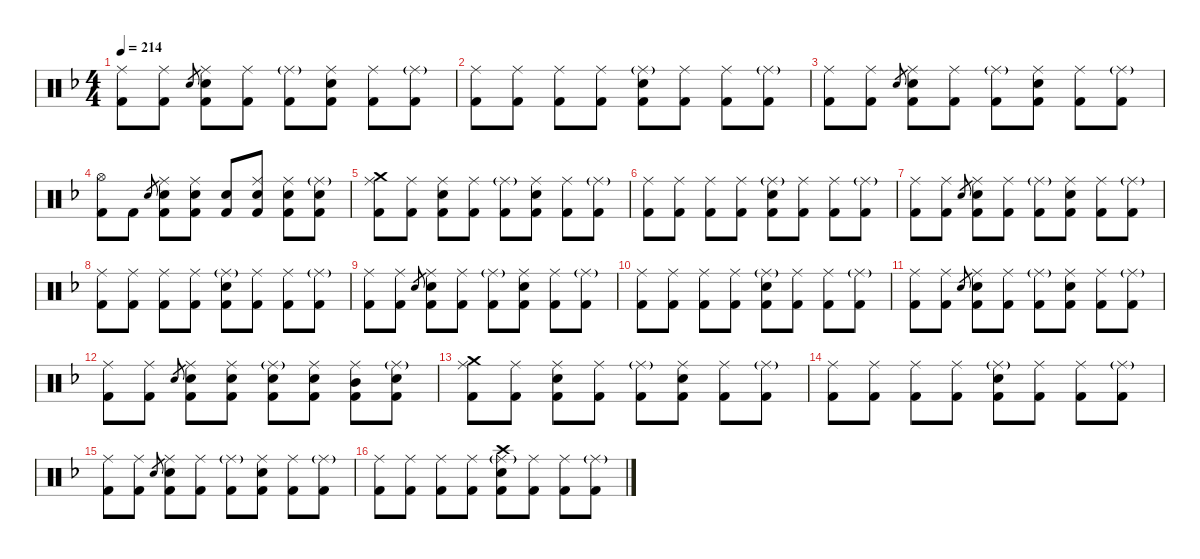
\hideDynamics
\bracketExtendMode nobrackets
\singleTrackTrackNamePolicy hidden
\multiTrackTrackNamePolicy hidden
\firstSystemTrackNameMode fullname
\firstSystemTrackNameOrientation horizontal
\otherSystemsTrackNameOrientation horizontal
\track ("Drumkit" "Drums") {defaultSystemsLayout 4 instrument percussion}
\staff {score}
\articulation defaults
\ts (4 4)
\tempo 214
\clef neutral
\ks dminor
("Ride (middle)"{acc forcenatural} "Kick (hit) 2"{acc forcenatural}).8{dy mf beam Down} ("Ride (middle)"{acc forcenatural} "Kick (hit) 2"{acc forcenatural}).8{beam Down} "Snare (hit) 2"{acc forcenatural}.8{gr dy mp beam Up} ("Ride (middle)"{acc forcenatural} "Snare (hit) 2"{acc forcenatural} "Kick (hit) 2"{acc forcenatural}).8{dy mf beam Down} ("Ride (middle)"{acc forcenatural} "Kick (hit) 2"{acc forcenatural}).8{beam Down} ("Ride (middle)"{g acc forcenatural} "Kick (hit) 2"{acc forcenatural}).8{dy f beam Down} ("Ride (middle)"{acc forcenatural} "Snare (hit) 2"{acc forcenatural} "Kick (hit) 2"{acc forcenatural}).8{dy mf beam Down} ("Ride (middle)"{acc forcenatural} "Kick (hit) 2"{acc forcenatural}).8{beam Down} ("Ride (middle)"{g acc forcenatural} "Kick (hit) 2"{acc forcenatural}).8{dy f beam Down} |
("Ride (middle)"{acc forcenatural} "Kick (hit) 2"{acc forcenatural}).8{dy mf beam Down} ("Ride (middle)"{acc forcenatural} "Kick (hit) 2"{acc forcenatural}).8{beam Down} ("Ride (middle)"{acc forcenatural} "Kick (hit) 2"{acc forcenatural}).8{beam Down} ("Ride (middle)"{acc forcenatural} "Kick (hit) 2"{acc forcenatural}).8{beam Down} ("Ride (middle)"{g acc forcenatural} "Snare (hit) 2"{acc forcenatural} "Kick (hit) 2"{acc forcenatural}).8{dy f beam Down} ("Ride (middle)"{acc forcenatural} "Kick (hit) 2"{acc forcenatural}).8{dy mf beam Down} ("Ride (middle)"{acc forcenatural} "Kick (hit) 2"{acc forcenatural}).8{beam Down} ("Ride (middle)"{g acc forcenatural} "Kick (hit) 2"{acc forcenatural}).8{dy f beam Down} |
("Ride (middle)"{acc forcenatural} "Kick (hit) 2"{acc forcenatural}).8{dy mf beam Down} ("Ride (middle)"{acc forcenatural} "Kick (hit) 2"{acc forcenatural}).8{beam Down} "Snare (hit) 2"{acc forcenatural}.8{gr dy mp beam Up} ("Ride (middle)"{acc forcenatural} "Snare (hit) 2"{acc forcenatural} "Kick (hit) 2"{acc forcenatural}).8{dy mf beam Down} ("Ride (middle)"{acc forcenatural} "Kick (hit) 2"{acc forcenatural}).8{beam Down} ("Ride (middle)"{g acc forcenatural} "Kick (hit) 2"{acc forcenatural}).8{dy f beam Down} ("Ride (middle)"{acc forcenatural} "Snare (hit) 2"{acc forcenatural} "Kick (hit) 2"{acc forcenatural}).8{dy mf beam Down} ("Ride (middle)"{acc forcenatural} "Kick (hit) 2"{acc forcenatural}).8{beam Down} ("Ride (middle)"{g acc forcenatural} "Kick (hit) 2"{acc forcenatural}).8{dy f beam Down} |
("Hi-Hat (open)"{acc forcenatural} "Kick (hit) 2"{acc forcenatural}).8{dy mf beam Down} "Kick (hit) 2"{acc forcenatural}.8{dy f beam Down} "Snare (hit) 2"{acc forcenatural}.8{gr dy mp beam Up} ("Ride (middle)"{acc forcenatural} "Snare (hit) 2"{acc forcenatural} "Kick (hit) 2"{acc forcenatural}).8{dy mf beam Down} ("Ride (middle)"{acc forcenatural} "Snare (hit) 2"{acc forcenatural} "Kick (hit) 2"{acc forcenatural}).8{beam Down} ("Snare (hit) 2"{acc forcenatural} "Kick (hit) 2"{acc forcenatural}).8{dy f beam Up} ("Ride (middle)"{acc forcenatural} "Snare (hit) 2"{acc forcenatural} "Kick (hit) 2"{acc forcenatural}).8{dy mf beam Up} ("Ride (middle)"{acc forcenatural} "Snare (hit) 2"{acc forcenatural} "Kick (hit) 2"{acc forcenatural}).8{beam Down} ("Ride (middle)"{g acc forcenatural} "Snare (hit) 2"{acc forcenatural} "Kick (hit) 2"{acc forcenatural}).8{dy f beam Down} |
("Crash medium (hit)"{acc forcenatural} "Ride (middle)"{acc forcenatural} "Kick (hit) 2"{acc forcenatural}).8{beam Down} ("Ride (middle)"{acc forcenatural} "Kick (hit) 2"{acc forcenatural}).8{dy mf beam Down} ("Ride (middle)"{acc forcenatural} "Snare (hit) 2"{acc forcenatural} "Kick (hit) 2"{acc forcenatural}).8{beam Down} ("Ride (middle)"{acc forcenatural} "Kick (hit) 2"{acc forcenatural}).8{beam Down} ("Ride (middle)"{g acc forcenatural} "Kick (hit) 2"{acc forcenatural}).8{dy f beam Down} ("Ride (middle)"{acc forcenatural} "Snare (hit) 2"{acc forcenatural} "Kick (hit) 2"{acc forcenatural}).8{dy mf beam Down} ("Ride (middle)"{acc forcenatural} "Kick (hit) 2"{acc forcenatural}).8{beam Down} ("Ride (middle)"{g acc forcenatural} "Kick (hit) 2"{acc forcenatural}).8{dy f beam Down} |
("Ride (middle)"{acc forcenatural} "Kick (hit) 2"{acc forcenatural}).8{dy mf beam Down} ("Ride (middle)"{acc forcenatural} "Kick (hit) 2"{acc forcenatural}).8{beam Down} ("Ride (middle)"{acc forcenatural} "Kick (hit) 2"{acc forcenatural}).8{beam Down} ("Ride (middle)"{acc forcenatural} "Kick (hit) 2"{acc forcenatural}).8{beam Down} ("Ride (middle)"{g acc forcenatural} "Snare (hit) 2"{acc forcenatural} "Kick (hit) 2"{acc forcenatural}).8{dy f beam Down} ("Ride (middle)"{acc forcenatural} "Kick (hit) 2"{acc forcenatural}).8{dy mf beam Down} ("Ride (middle)"{acc forcenatural} "Kick (hit) 2"{acc forcenatural}).8{beam Down} ("Ride (middle)"{g acc forcenatural} "Kick (hit) 2"{acc forcenatural}).8{dy f beam Down} |
("Ride (middle)"{acc forcenatural} "Kick (hit) 2"{acc forcenatural}).8{dy mf beam Down} ("Ride (middle)"{acc forcenatural} "Kick (hit) 2"{acc forcenatural}).8{beam Down} "Snare (hit) 2"{acc forcenatural}.8{gr dy mp beam Up} ("Ride (middle)"{acc forcenatural} "Snare (hit) 2"{acc forcenatural} "Kick (hit) 2"{acc forcenatural}).8{dy mf beam Down} ("Ride (middle)"{acc forcenatural} "Kick (hit) 2"{acc forcenatural}).8{beam Down} ("Ride (middle)"{g acc forcenatural} "Kick (hit) 2"{acc forcenatural}).8{dy f beam Down} ("Ride (middle)"{acc forcenatural} "Snare (hit) 2"{acc forcenatural} "Kick (hit) 2"{acc forcenatural}).8{dy mf beam Down} ("Ride (middle)"{acc forcenatural} "Kick (hit) 2"{acc forcenatural}).8{beam Down} ("Ride (middle)"{g acc forcenatural} "Kick (hit) 2"{acc forcenatural}).8{dy f beam Down} |
("Ride (middle)"{acc forcenatural} "Kick (hit) 2"{acc forcenatural}).8{dy mf beam Down} ("Ride (middle)"{acc forcenatural} "Kick (hit) 2"{acc forcenatural}).8{beam Down} ("Ride (middle)"{acc forcenatural} "Kick (hit) 2"{acc forcenatural}).8{beam Down} ("Ride (middle)"{acc forcenatural} "Kick (hit) 2"{acc forcenatural}).8{beam Down} ("Ride (middle)"{g acc forcenatural} "Snare (hit) 2"{acc forcenatural} "Kick (hit) 2"{acc forcenatural}).8{dy f beam Down} ("Ride (middle)"{acc forcenatural} "Kick (hit) 2"{acc forcenatural}).8{dy mf beam Down} ("Ride (middle)"{acc forcenatural} "Kick (hit) 2"{acc forcenatural}).8{beam Down} ("Ride (middle)"{g acc forcenatural} "Kick (hit) 2"{acc forcenatural}).8{dy f beam Down} |
("Ride (middle)"{acc forcenatural} "Kick (hit) 2"{acc forcenatural}).8{dy mf beam Down} ("Ride (middle)"{acc forcenatural} "Kick (hit) 2"{acc forcenatural}).8{beam Down} "Snare (hit) 2"{acc forcenatural}.8{gr dy mp beam Up} ("Ride (middle)"{acc forcenatural} "Snare (hit) 2"{acc forcenatural} "Kick (hit) 2"{acc forcenatural}).8{dy mf beam Down} ("Ride (middle)"{acc forcenatural} "Kick (hit) 2"{acc forcenatural}).8{beam Down} ("Ride (middle)"{g acc forcenatural} "Kick (hit) 2"{acc forcenatural}).8{dy f beam Down} ("Ride (middle)"{acc forcenatural} "Snare (hit) 2"{acc forcenatural} "Kick (hit) 2"{acc forcenatural}).8{dy mf beam Down} ("Ride (middle)"{acc forcenatural} "Kick (hit) 2"{acc forcenatural}).8{beam Down} ("Ride (middle)"{g acc forcenatural} "Kick (hit) 2"{acc forcenatural}).8{dy f beam Down} |
("Ride (middle)"{acc forcenatural} "Kick (hit) 2"{acc forcenatural}).8{dy mf beam Down} ("Ride (middle)"{acc forcenatural} "Kick (hit) 2"{acc forcenatural}).8{beam Down} ("Ride (middle)"{acc forcenatural} "Kick (hit) 2"{acc forcenatural}).8{beam Down} ("Ride (middle)"{acc forcenatural} "Kick (hit) 2"{acc forcenatural}).8{beam Down} ("Ride (middle)"{g acc forcenatural} "Snare (hit) 2"{acc forcenatural} "Kick (hit) 2"{acc forcenatural}).8{dy f beam Down} ("Ride (middle)"{acc forcenatural} "Kick (hit) 2"{acc forcenatural}).8{dy mf beam Down} ("Ride (middle)"{acc forcenatural} "Kick (hit) 2"{acc forcenatural}).8{beam Down} ("Ride (middle)"{g acc forcenatural} "Kick (hit) 2"{acc forcenatural}).8{dy f beam Down} |
("Ride (middle)"{acc forcenatural} "Kick (hit) 2"{acc forcenatural}).8{dy mf beam Down} ("Ride (middle)"{acc forcenatural} "Kick (hit) 2"{acc forcenatural}).8{beam Down} "Snare (hit) 2"{acc forcenatural}.8{gr dy mp beam Up} ("Ride (middle)"{acc forcenatural} "Snare (hit) 2"{acc forcenatural} "Kick (hit) 2"{acc forcenatural}).8{dy mf beam Down} ("Ride (middle)"{acc forcenatural} "Kick (hit) 2"{acc forcenatural}).8{beam Down} ("Ride (middle)"{g acc forcenatural} "Kick (hit) 2"{acc forcenatural}).8{dy f beam Down} ("Ride (middle)"{acc forcenatural} "Snare (hit) 2"{acc forcenatural} "Kick (hit) 2"{acc forcenatural}).8{dy mf beam Down} ("Ride (middle)"{acc forcenatural} "Kick (hit) 2"{acc forcenatural}).8{beam Down} ("Ride (middle)"{g acc forcenatural} "Kick (hit) 2"{acc forcenatural}).8{dy f beam Down} |
("Ride (middle)"{acc forcenatural} "Kick (hit) 2"{acc forcenatural}).8{dy mf beam Down} ("Ride (middle)"{acc forcenatural} "Kick (hit) 2"{acc forcenatural}).8{beam Down} "Snare (hit) 2"{acc forcenatural}.8{gr dy mp beam Up} ("Ride (middle)"{acc forcenatural} "Snare (hit) 2"{acc forcenatural} "Kick (hit) 2"{acc forcenatural}).8{dy mf beam Down} ("Ride (middle)"{acc forcenatural} "Snare (hit) 2"{acc forcenatural} "Kick (hit) 2"{acc forcenatural}).8{beam Down} ("Ride (middle)"{g acc forcenatural} "Snare (hit) 2"{acc forcenatural} "Kick (hit) 2"{acc forcenatural}).8{dy f beam Down} ("Ride (middle)"{acc forcenatural} "Snare (hit) 2"{acc forcenatural} "Kick (hit) 2"{acc forcenatural}).8{dy mf beam Down} ("Ride (middle)"{acc forcenatural} "Mid Tom (hit)"{acc forcenatural} "Kick (hit) 2"{acc forcenatural}).8{beam Down} ("Ride (middle)"{g acc forcenatural} "Snare (hit) 2"{acc forcenatural} "Kick (hit) 2"{acc forcenatural}).8{dy f beam Down} |
("Crash medium (hit)"{acc forcenatural} "Ride (middle)"{acc forcenatural} "Kick (hit) 2"{acc forcenatural}).8{beam Down} ("Ride (middle)"{acc forcenatural} "Kick (hit) 2"{acc forcenatural}).8{dy mf beam Down} ("Ride (middle)"{acc forcenatural} "Snare (hit) 2"{acc forcenatural} "Kick (hit) 2"{acc forcenatural}).8{beam Down} ("Ride (middle)"{acc forcenatural} "Kick (hit) 2"{acc forcenatural}).8{beam Down} ("Ride (middle)"{g acc forcenatural} "Kick (hit) 2"{acc forcenatural}).8{dy f beam Down} ("Ride (middle)"{acc forcenatural} "Snare (hit) 2"{acc forcenatural} "Kick (hit) 2"{acc forcenatural}).8{dy mf beam Down} ("Ride (middle)"{acc forcenatural} "Kick (hit) 2"{acc forcenatural}).8{beam Down} ("Ride (middle)"{g acc forcenatural} "Kick (hit) 2"{acc forcenatural}).8{dy f beam Down} |
("Ride (middle)"{acc forcenatural} "Kick (hit) 2"{acc forcenatural}).8{dy mf beam Down} ("Ride (middle)"{acc forcenatural} "Kick (hit) 2"{acc forcenatural}).8{beam Down} ("Ride (middle)"{acc forcenatural} "Kick (hit) 2"{acc forcenatural}).8{beam Down} ("Ride (middle)"{acc forcenatural} "Kick (hit) 2"{acc forcenatural}).8{beam Down} ("Ride (middle)"{g acc forcenatural} "Snare (hit) 2"{acc forcenatural} "Kick (hit) 2"{acc forcenatural}).8{dy f beam Down} ("Ride (middle)"{acc forcenatural} "Kick (hit) 2"{acc forcenatural}).8{dy mf beam Down} ("Ride (middle)"{acc forcenatural} "Kick (hit) 2"{acc forcenatural}).8{beam Down} ("Ride (middle)"{g acc forcenatural} "Kick (hit) 2"{acc forcenatural}).8{dy f beam Down} |
("Ride (middle)"{acc forcenatural} "Kick (hit) 2"{acc forcenatural}).8{dy mf beam Down} ("Ride (middle)"{acc forcenatural} "Kick (hit) 2"{acc forcenatural}).8{beam Down} "Snare (hit) 2"{acc forcenatural}.8{gr dy mp beam Up} ("Ride (middle)"{acc forcenatural} "Snare (hit) 2"{acc forcenatural} "Kick (hit) 2"{acc forcenatural}).8{dy mf beam Down} ("Ride (middle)"{acc forcenatural} "Kick (hit) 2"{acc forcenatural}).8{beam Down} ("Ride (middle)"{g acc forcenatural} "Kick (hit) 2"{acc forcenatural}).8{dy f beam Down} ("Ride (middle)"{acc forcenatural} "Snare (hit) 2"{acc forcenatural} "Kick (hit) 2"{acc forcenatural}).8{dy mf beam Down} ("Ride (middle)"{acc forcenatural} "Kick (hit) 2"{acc forcenatural}).8{beam Down} ("Ride (middle)"{g acc forcenatural} "Kick (hit) 2"{acc forcenatural}).8{dy f beam Down} |
("Ride (middle)"{acc forcenatural} "Kick (hit) 2"{acc forcenatural}).8{dy mf beam Down} ("Ride (middle)"{acc forcenatural} "Kick (hit) 2"{acc forcenatural}).8{beam Down} ("Ride (middle)"{acc forcenatural} "Kick (hit) 2"{acc forcenatural}).8{beam Down} ("Ride (middle)"{acc forcenatural} "Kick (hit) 2"{acc forcenatural}).8{beam Down} ("Crash high (hit)"{acc forcenatural} "Ride (middle)"{g acc forcenatural} "Snare (hit) 2"{acc forcenatural} "Kick (hit) 2"{acc forcenatural}).8{beam Down} ("Ride (middle)"{acc forcenatural} "Kick (hit) 2"{acc forcenatural}).8{beam Down} ("Ride (middle)"{acc forcenatural} "Kick (hit) 2"{acc forcenatural}).8{beam Down} ("Ride (middle)"{g acc forcenatural} "Kick (hit) 2"{acc forcenatural}).8{dy f beam Down}
